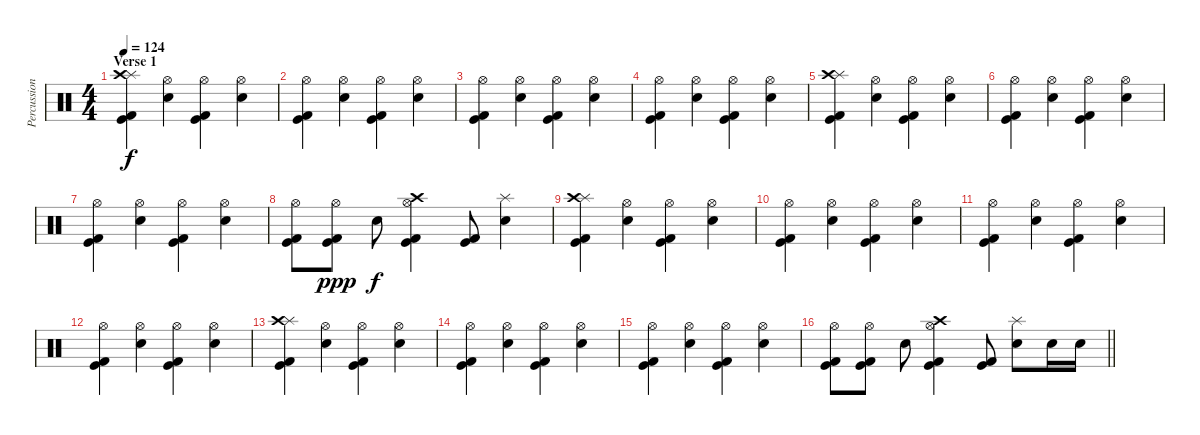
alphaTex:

\track ("Percussion" "Percussion") {instrument percussion}
\staff {score}
\articulation defaults
\ts (4 4)
\section ("" "Verse 1")
\tempo 124
\clef neutral
\ks c
("Splash (hit)" "Crash high (hit)" "Kick (hit)" "Kick (hit) 2").4{dy f} ("Hi-Hat (open)" "Snare (hit) 2").4 ("Hi-Hat (open)" "Kick (hit)" "Kick (hit) 2").4 ("Hi-Hat (open)" "Snare (hit) 2").4 |
("Hi-Hat (open)" "Kick (hit)" "Kick (hit) 2").4 ("Hi-Hat (open)" "Snare (hit) 2").4 ("Hi-Hat (open)" "Kick (hit)" "Kick (hit) 2").4 ("Hi-Hat (open)" "Snare (hit) 2").4 |
("Hi-Hat (open)" "Kick (hit)" "Kick (hit) 2").4 ("Hi-Hat (open)" "Snare (hit) 2").4 ("Hi-Hat (open)" "Kick (hit)" "Kick (hit) 2").4 ("Hi-Hat (open)" "Snare (hit) 2").4 |
("Hi-Hat (open)" "Kick (hit)" "Kick (hit) 2").4 ("Hi-Hat (open)" "Snare (hit) 2").4 ("Hi-Hat (open)" "Kick (hit)" "Kick (hit) 2").4 ("Hi-Hat (open)" "Snare (hit) 2").4 |
("Splash (hit)" "Crash high (hit)" "Kick (hit)" "Kick (hit) 2").4 ("Hi-Hat (open)" "Snare (hit) 2").4 ("Hi-Hat (open)" "Kick (hit)" "Kick (hit) 2").4 ("Hi-Hat (open)" "Snare (hit) 2").4 |
("Hi-Hat (open)" "Kick (hit)" "Kick (hit) 2").4 ("Hi-Hat (open)" "Snare (hit) 2").4 ("Hi-Hat (open)" "Kick (hit)" "Kick (hit) 2").4 ("Hi-Hat (open)" "Snare (hit) 2").4 |
("Hi-Hat (open)" "Kick (hit)" "Kick (hit) 2").4 ("Hi-Hat (open)" "Snare (hit) 2").4 ("Hi-Hat (open)" "Kick (hit)" "Kick (hit) 2").4 ("Hi-Hat (open)" "Snare (hit) 2").4 |
("Hi-Hat (open)" "Kick (hit)" "Kick (hit) 2").8 ("Hi-Hat (open)" "Kick (hit) 2" "Kick (hit)").8{dy ppp} "Snare (hit) 2".8{dy f} ("Crash high (hit)" "Hi-Hat (open)" "Kick (hit)" "Kick (hit) 2").4 ("Kick (hit)" "Kick (hit) 2").8 ("Splash (hit)" "Snare (hit) 2").4 |
("Splash (hit)" "Crash high (hit)" "Kick (hit)" "Kick (hit) 2").4 ("Hi-Hat (open)" "Snare (hit) 2").4 ("Hi-Hat (open)" "Kick (hit)" "Kick (hit) 2").4 ("Hi-Hat (open)" "Snare (hit) 2").4 |
("Hi-Hat (open)" "Kick (hit)" "Kick (hit) 2").4 ("Hi-Hat (open)" "Snare (hit) 2").4 ("Hi-Hat (open)" "Kick (hit)" "Kick (hit) 2").4 ("Hi-Hat (open)" "Snare (hit) 2").4 |
("Hi-Hat (open)" "Kick (hit)" "Kick (hit) 2").4 ("Hi-Hat (open)" "Snare (hit) 2").4 ("Hi-Hat (open)" "Kick (hit)" "Kick (hit) 2").4 ("Hi-Hat (open)" "Snare (hit) 2").4 |
("Hi-Hat (open)" "Kick (hit)" "Kick (hit) 2").4 ("Hi-Hat (open)" "Snare (hit) 2").4 ("Hi-Hat (open)" "Kick (hit)" "Kick (hit) 2").4 ("Hi-Hat (open)" "Snare (hit) 2").4 |
("Splash (hit)" "Crash high (hit)" "Kick (hit)" "Kick (hit) 2").4 ("Hi-Hat (open)" "Snare (hit) 2").4 ("Hi-Hat (open)" "Kick (hit)" "Kick (hit) 2").4 ("Hi-Hat (open)" "Snare (hit) 2").4 |
("Hi-Hat (open)" "Kick (hit)" "Kick (hit) 2").4 ("Hi-Hat (open)" "Snare (hit) 2").4 ("Hi-Hat (open)" "Kick (hit)" "Kick (hit) 2").4 ("Hi-Hat (open)" "Snare (hit) 2").4 |
("Hi-Hat (open)" "Kick (hit)" "Kick (hit) 2").4 ("Hi-Hat (open)" "Snare (hit) 2").4 ("Hi-Hat (open)" "Kick (hit)" "Kick (hit) 2").4 ("Hi-Hat (open)" "Snare (hit) 2").4 |
\barLineRight lightlight
("Hi-Hat (open)" "Kick (hit)" "Kick (hit) 2").8 ("Hi-Hat (open)" "Kick (hit) 2" "Kick (hit)").8 "Snare (hit) 2".8 ("Crash high (hit)" "Hi-Hat (open)" "Kick (hit)" "Kick (hit) 2").4 ("Kick (hit)" "Kick (hit) 2").8 ("Splash (hit)" "Snare (hit) 2").8 "Electric Snare (hit)".16 "Electric Snare (hit)".16
